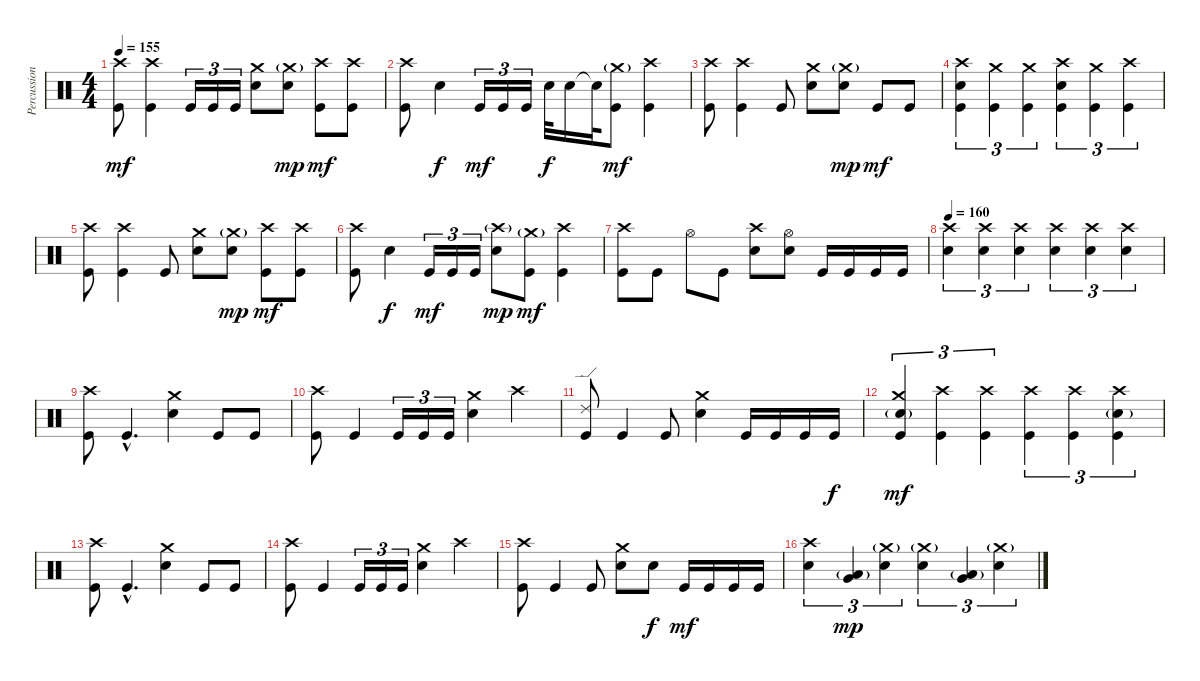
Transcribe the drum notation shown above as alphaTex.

\track ("Percussion" "Percussion") {instrument percussion}
\staff {score}
\articulation defaults
\ts (4 4)
\tempo 155
\clef neutral
\ks c
("Crash high (hit)" "Kick (hit)").8{dy mf} ("Crash high (hit)" "Kick (hit)").4 "Kick (hit)".16{tu (3 2)} "Kick (hit)".16{tu (3 2)} "Kick (hit)".16{tu (3 2)} ("Crash medium (hit)" "Electric Snare (hit)").8 ("Crash medium (hit)"{g} "Electric Snare (hit)").8{dy mp} ("Crash high (hit)" "Kick (hit)").8{dy mf} ("Crash high (hit)" "Kick (hit)").8 |
("Crash high (hit)" "Kick (hit)").8 "Electric Snare (hit)".4{dy f} "Kick (hit)".16{tu (3 2) dy mf} "Kick (hit)".16{tu (3 2)} "Kick (hit)".16{tu (3 2)} "Electric Snare (hit)".32{dy f} "Electric Snare (hit)".16 "Snare (hit)"{t}.32 ("Crash medium (hit)"{g} "Kick (hit)").8{dy mf} ("Crash high (hit)" "Kick (hit)").4 |
("Crash high (hit)" "Kick (hit)").8 ("Crash high (hit)" "Kick (hit)").4 "Kick (hit)".8 ("Crash medium (hit)" "Electric Snare (hit)").8 ("Crash medium (hit)"{g} "Electric Snare (hit)").8{dy mp} "Kick (hit)".8{dy mf} "Kick (hit)".8 |
("Crash high (hit)" "Electric Snare (hit)" "Kick (hit)").4{tu (3 2)} ("Crash medium (hit)" "Kick (hit)").4{tu (3 2)} ("Crash medium (hit)" "Kick (hit)").4{tu (3 2)} ("Crash high (hit)" "Electric Snare (hit)" "Kick (hit)").4{tu (3 2)} ("Crash medium (hit)" "Kick (hit)").4{tu (3 2)} ("Crash high (hit)" "Kick (hit)").4{tu (3 2)} |
("Crash high (hit)" "Kick (hit)").8 ("Crash high (hit)" "Kick (hit)").4 "Kick (hit)".8 ("Crash medium (hit)" "Electric Snare (hit)").8 ("Crash medium (hit)"{g} "Electric Snare (hit)").8{dy mp} ("Crash high (hit)" "Kick (hit)").8{dy mf} ("Crash high (hit)" "Kick (hit)").8 |
("Crash high (hit)" "Kick (hit)").8 "Electric Snare (hit)".4{dy f} "Kick (hit)".16{tu (3 2) dy mf} "Kick (hit)".16{tu (3 2)} "Kick (hit)".16{tu (3 2)} ("Crash high (hit)"{g} "Electric Snare (hit)").8{dy mp} ("Crash medium (hit)"{g} "Kick (hit)").8{dy mf} ("Crash high (hit)" "Kick (hit)").4 |
("Crash high (hit)" "Kick (hit)").8 "Kick (hit)".8 "Hi-Hat (open)".8 "Kick (hit)".8 ("Crash high (hit)" "Electric Snare (hit)").8 ("Hi-Hat (open)" "Electric Snare (hit)").8 "Kick (hit)".16 "Kick (hit)".16 "Kick (hit)".16 "Kick (hit)".16 |
\tempo 160
("Crash high (hit)" "Electric Snare (hit)").4{tu (3 2)} ("Crash high (hit)" "Electric Snare (hit)").4{tu (3 2)} ("Crash high (hit)" "Electric Snare (hit)").4{tu (3 2)} ("Crash high (hit)" "Electric Snare (hit)").4{tu (3 2)} ("Crash high (hit)" "Electric Snare (hit)").4{tu (3 2)} ("Crash high (hit)" "Electric Snare (hit)").4{tu (3 2)} |
("Crash high (hit)" "Kick (hit)").8 "Kick (hit)"{hac}.4{d} ("Crash medium (hit)" "Electric Snare (hit)").4 "Kick (hit)".8 "Kick (hit)".8 |
("Crash high (hit)" "Kick (hit)").8 "Kick (hit)".4 "Kick (hit)".16{tu (3 2)} "Kick (hit)".16{tu (3 2)} "Kick (hit)".16{tu (3 2)} ("Crash medium (hit)" "Electric Snare (hit)").4 "Crash high (hit)".4 |
("Ride (edge) 2" "Kick (hit)").8 "Kick (hit)".4 "Kick (hit)".8 ("Crash medium (hit)" "Electric Snare (hit)").4 "Kick (hit)".16 "Kick (hit)".16 "Kick (hit)".16 "Kick (hit)".16{dy f} |
("Crash medium (hit)" "Electric Snare (hit)"{g} "Kick (hit)").4{tu (3 2) dy mf} ("Crash high (hit)" "Kick (hit)").4{tu (3 2)} ("Crash high (hit)" "Kick (hit)").4{tu (3 2)} ("Crash high (hit)" "Kick (hit)").4{tu (3 2)} ("Crash high (hit)" "Kick (hit)").4{tu (3 2)} ("Crash high (hit)" "Electric Snare (hit)"{g} "Kick (hit)").4{tu (3 2)} |
("Crash high (hit)" "Kick (hit)").8 "Kick (hit)"{hac}.4{d} ("Crash medium (hit)" "Electric Snare (hit)").4 "Kick (hit)".8 "Kick (hit)".8 |
("Crash high (hit)" "Kick (hit)").8 "Kick (hit)".4 "Kick (hit)".16{tu (3 2)} "Kick (hit)".16{tu (3 2)} "Kick (hit)".16{tu (3 2)} ("Crash medium (hit)" "Electric Snare (hit)").4 "Crash high (hit)".4 |
("Crash high (hit)" "Kick (hit)").8 "Kick (hit)".4 "Kick (hit)".8 ("Crash medium (hit)" "Electric Snare (hit)").8 "Electric Snare (hit)".8{dy f} "Kick (hit)".16{dy mf} "Kick (hit)".16 "Kick (hit)".16 "Kick (hit)".16 |
("Crash high (hit)" "Electric Snare (hit)").4{tu (3 2)} ("Low Tom (hit)"{g} "Very Low Tom (hit)").4{tu (3 2) dy mp} ("Crash medium (hit)"{g} "Electric Snare (hit)").4{tu (3 2)} ("Crash medium (hit)"{g} "Electric Snare (hit)").4{tu (3 2)} ("Low Tom (hit)"{g} "Very Low Tom (hit)").4{tu (3 2)} ("Crash medium (hit)"{g} "Electric Snare (hit)").4{tu (3 2)}
